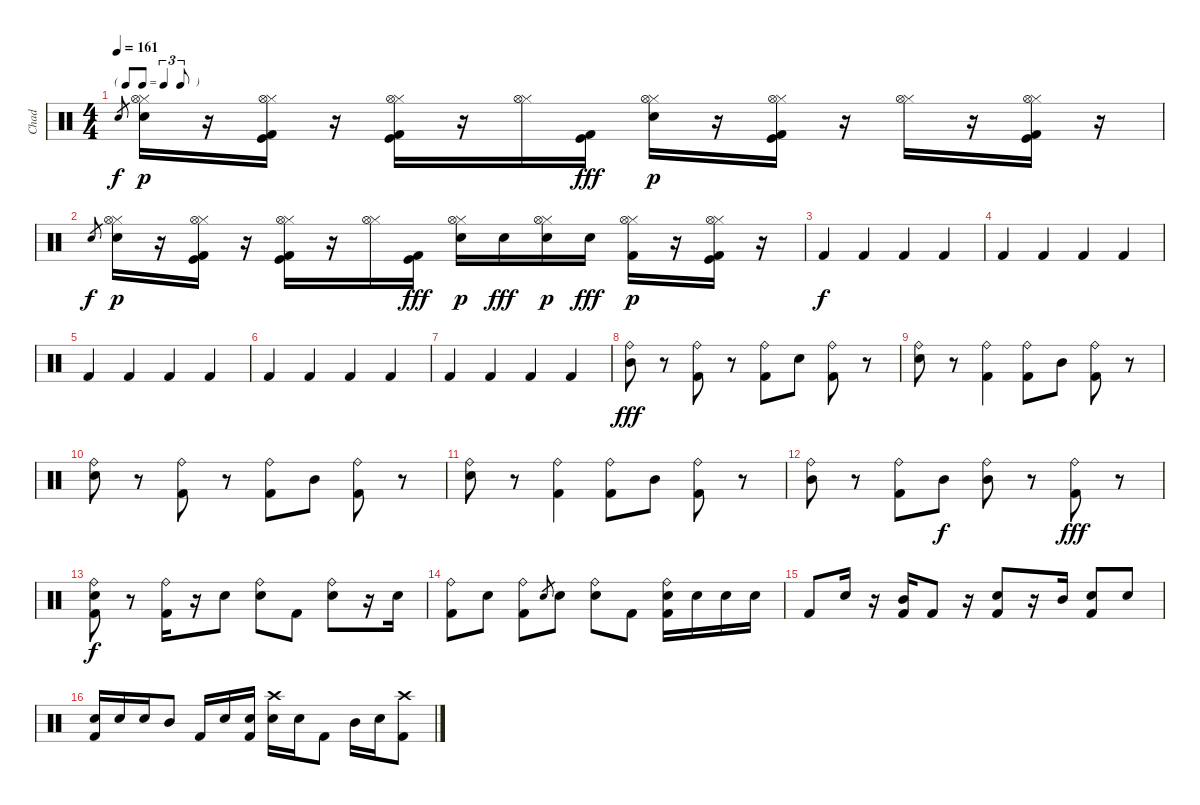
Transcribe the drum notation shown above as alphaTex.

\track ("Chad" "Chad") {instrument percussion}
\staff {score}
\articulation defaults
\ts (4 4)
\tf triplet8th
\tempo 161
\clef neutral
\ks c "Snare (hit) 2".8{gr dy f}
("Hi-Hat (closed)" "Snare (hit) 2" "Hi-Hat (open)").16{dy p} r.16 ("Hi-Hat (closed)" "Kick (hit) 2" "Kick (hit)" "Hi-Hat (open)").16 r.16 ("Hi-Hat (closed)" "Kick (hit) 2" "Kick (hit)" "Hi-Hat (open)").16 r.16 ("Hi-Hat (closed)" "Hi-Hat (open)").16 ("Kick (hit) 2" "Kick (hit)").16{dy fff} ("Hi-Hat (closed)" "Snare (hit) 2" "Hi-Hat (open)").16{dy p} r.16 ("Hi-Hat (closed)" "Kick (hit)" "Kick (hit) 2" "Hi-Hat (open)").16 r.16 ("Hi-Hat (closed)" "Hi-Hat (open)").16 r.16 ("Hi-Hat (closed)" "Kick (hit)" "Kick (hit) 2" "Hi-Hat (open)").16 r.16 |
"Snare (hit) 2".8{gr dy f} ("Hi-Hat (closed)" "Snare (hit) 2" "Hi-Hat (open)").16{dy p} r.16 ("Hi-Hat (closed)" "Kick (hit) 2" "Kick (hit)" "Hi-Hat (open)").16 r.16 ("Hi-Hat (closed)" "Kick (hit) 2" "Kick (hit)" "Hi-Hat (open)").16 r.16 ("Hi-Hat (closed)" "Hi-Hat (open)").16 ("Kick (hit) 2" "Kick (hit)").16{dy fff} ("Hi-Hat (closed)" "Snare (hit) 2" "Hi-Hat (open)").16{dy p} "Snare (hit) 2".16{dy fff} ("Hi-Hat (closed)" "Snare (hit) 2" "Hi-Hat (open)").16{dy p} "Snare (hit) 2".16{dy fff} ("Hi-Hat (closed)" "Kick (hit) 2" "Hi-Hat (open)").16{dy p} r.16 ("Hi-Hat (closed)" "Kick (hit)" "Kick (hit) 2" "Hi-Hat (open)").16 r.16 |
"Kick (hit) 2".4{dy f} "Kick (hit) 2".4 "Kick (hit) 2".4 "Kick (hit) 2".4 |
"Kick (hit) 2".4 "Kick (hit) 2".4 "Kick (hit) 2".4 "Kick (hit) 2".4 |
"Kick (hit) 2".4 "Kick (hit) 2".4 "Kick (hit) 2".4 "Kick (hit) 2".4 |
"Kick (hit) 2".4 "Kick (hit) 2".4 "Kick (hit) 2".4 "Kick (hit) 2".4 |
"Kick (hit) 2".4 "Kick (hit) 2".4 "Kick (hit) 2".4 "Kick (hit) 2".4 |
("Ride (bell)" "Mid Tom (hit)").8{dy fff} r.8 ("Ride (bell)" "Kick (hit) 2").8 r.8 ("Ride (bell)" "Kick (hit) 2").8 "Snare (hit) 2".8 ("Ride (bell)" "Kick (hit) 2").8 r.8 |
("Ride (bell)" "Snare (hit) 2").8 r.8 ("Ride (bell)" "Kick (hit) 2").4 ("Ride (bell)" "Kick (hit) 2").8 "Mid Tom (hit)".8 ("Ride (bell)" "Kick (hit) 2").8 r.8 |
("Ride (bell)" "Snare (hit) 2").8 r.8 ("Ride (bell)" "Kick (hit) 2").8 r.8 ("Ride (bell)" "Kick (hit) 2").8 "Mid Tom (hit)".8 ("Ride (bell)" "Kick (hit) 2").8 r.8 |
("Ride (bell)" "Snare (hit) 2").8 r.8 ("Ride (bell)" "Kick (hit) 2").4 ("Ride (bell)" "Kick (hit) 2").8 "Mid Tom (hit)".8 ("Ride (bell)" "Kick (hit) 2").8 r.8 |
("Ride (bell)" "Mid Tom (hit)").8 r.8 ("Ride (bell)" "Kick (hit) 2").8 "Mid Tom (hit)".8{dy f} ("Ride (bell)" "Mid Tom (hit)").8 r.8 ("Ride (bell)" "Kick (hit) 2").8{dy fff} r.8 |
("Ride (bell)" "Kick (hit) 2" "Snare (hit) 2").8{dy f} r.8 ("Ride (bell)" "Kick (hit) 2").16 r.16 "Snare (hit) 2".8 ("Ride (bell)" "Snare (hit) 2").8 "Kick (hit) 2".8 ("Ride (bell)" "Snare (hit) 2").8 r.16 "Snare (hit) 2".16 |
("Ride (bell)" "Kick (hit) 2").8 "Snare (hit) 2".8 ("Ride (bell)" "Kick (hit) 2").8 "Snare (hit) 2".8{gr} "Snare (hit) 2".8 ("Ride (bell)" "Snare (hit) 2").8 "Kick (hit) 2".8 ("Ride (bell)" "Snare (hit) 2" "Kick (hit) 2").16 "Snare (hit) 2".16 "Snare (hit) 2".16 "Snare (hit) 2".16 |
"Kick (hit) 2".8 "Snare (hit) 2".16 r.16 ("Mid Tom (hit)" "Kick (hit) 2").16 "Kick (hit) 2".8 r.16 ("Snare (hit) 2" "Kick (hit) 2").8 r.16 "Mid Tom (hit)".16 ("Snare (hit) 2" "Kick (hit) 2").8 "Snare (hit) 2".8 |
("Snare (hit) 2" "Kick (hit) 2").16 "Snare (hit) 2".16 "Snare (hit) 2".16 "Mid Tom (hit)".8 "Kick (hit) 2".16 "Snare (hit) 2".16 ("Snare (hit) 2" "Kick (hit) 2").16 ("Crash high (hit)" "Snare (hit) 2").16 "Snare (hit) 2".16 "Kick (hit) 2".8 "Mid Tom (hit)".16 "Snare (hit) 2".16 ("Crash high (hit)" "Kick (hit) 2").8
